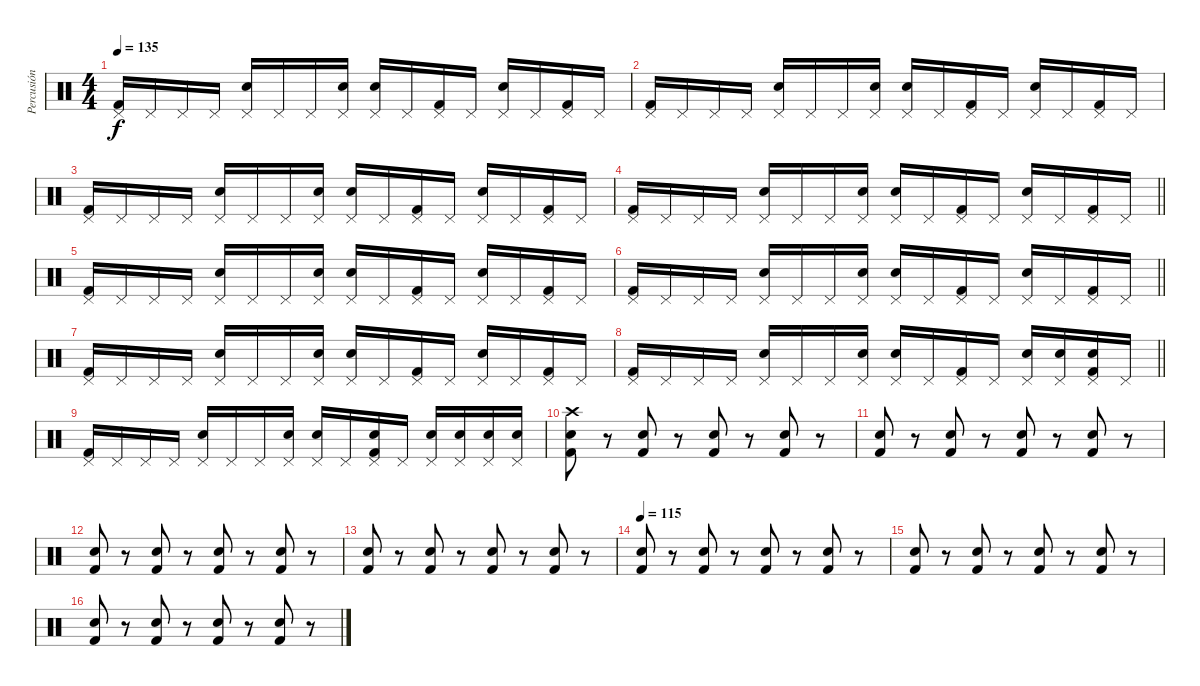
\track ("Percusión" "Percusión") {instrument percussion}
\staff {score}
\articulation defaults
\ts (4 4)
\tempo 135
\clef neutral
\ks c
("Pedal Hi-Hat (hit)" "Kick (hit) 2").16{dy f} "Pedal Hi-Hat (hit)".16 "Pedal Hi-Hat (hit)".16 "Pedal Hi-Hat (hit)".16 ("Pedal Hi-Hat (hit)" "Snare (hit) 2").16 "Pedal Hi-Hat (hit)".16 "Pedal Hi-Hat (hit)".16 ("Pedal Hi-Hat (hit)" "Snare (hit) 2").16 ("Pedal Hi-Hat (hit)" "Snare (hit) 2").16 "Pedal Hi-Hat (hit)".16 ("Pedal Hi-Hat (hit)" "Kick (hit) 2").16 "Pedal Hi-Hat (hit)".16 ("Pedal Hi-Hat (hit)" "Snare (hit) 2").16 "Pedal Hi-Hat (hit)".16 ("Pedal Hi-Hat (hit)" "Kick (hit) 2").16 "Pedal Hi-Hat (hit)".16 |
("Pedal Hi-Hat (hit)" "Kick (hit) 2").16 "Pedal Hi-Hat (hit)".16 "Pedal Hi-Hat (hit)".16 "Pedal Hi-Hat (hit)".16 ("Pedal Hi-Hat (hit)" "Snare (hit) 2").16 "Pedal Hi-Hat (hit)".16 "Pedal Hi-Hat (hit)".16 ("Pedal Hi-Hat (hit)" "Snare (hit) 2").16 ("Pedal Hi-Hat (hit)" "Snare (hit) 2").16 "Pedal Hi-Hat (hit)".16 ("Pedal Hi-Hat (hit)" "Kick (hit) 2").16 "Pedal Hi-Hat (hit)".16 ("Pedal Hi-Hat (hit)" "Snare (hit) 2").16 "Pedal Hi-Hat (hit)".16 ("Pedal Hi-Hat (hit)" "Kick (hit) 2").16 "Pedal Hi-Hat (hit)".16 |
("Pedal Hi-Hat (hit)" "Kick (hit) 2").16 "Pedal Hi-Hat (hit)".16 "Pedal Hi-Hat (hit)".16 "Pedal Hi-Hat (hit)".16 ("Pedal Hi-Hat (hit)" "Snare (hit) 2").16 "Pedal Hi-Hat (hit)".16 "Pedal Hi-Hat (hit)".16 ("Pedal Hi-Hat (hit)" "Snare (hit) 2").16 ("Pedal Hi-Hat (hit)" "Snare (hit) 2").16 "Pedal Hi-Hat (hit)".16 ("Pedal Hi-Hat (hit)" "Kick (hit) 2").16 "Pedal Hi-Hat (hit)".16 ("Pedal Hi-Hat (hit)" "Snare (hit) 2").16 "Pedal Hi-Hat (hit)".16 ("Pedal Hi-Hat (hit)" "Kick (hit) 2").16 "Pedal Hi-Hat (hit)".16 |
\barLineRight lightlight
("Pedal Hi-Hat (hit)" "Kick (hit) 2").16 "Pedal Hi-Hat (hit)".16 "Pedal Hi-Hat (hit)".16 "Pedal Hi-Hat (hit)".16 ("Pedal Hi-Hat (hit)" "Snare (hit) 2").16 "Pedal Hi-Hat (hit)".16 "Pedal Hi-Hat (hit)".16 ("Pedal Hi-Hat (hit)" "Snare (hit) 2").16 ("Pedal Hi-Hat (hit)" "Snare (hit) 2").16 "Pedal Hi-Hat (hit)".16 ("Pedal Hi-Hat (hit)" "Kick (hit) 2").16 "Pedal Hi-Hat (hit)".16 ("Pedal Hi-Hat (hit)" "Snare (hit) 2").16 "Pedal Hi-Hat (hit)".16 ("Pedal Hi-Hat (hit)" "Kick (hit) 2").16 "Pedal Hi-Hat (hit)".16 |
("Pedal Hi-Hat (hit)" "Kick (hit) 2").16 "Pedal Hi-Hat (hit)".16 "Pedal Hi-Hat (hit)".16 "Pedal Hi-Hat (hit)".16 ("Pedal Hi-Hat (hit)" "Snare (hit) 2").16 "Pedal Hi-Hat (hit)".16 "Pedal Hi-Hat (hit)".16 ("Pedal Hi-Hat (hit)" "Snare (hit) 2").16 ("Pedal Hi-Hat (hit)" "Snare (hit) 2").16 "Pedal Hi-Hat (hit)".16 ("Pedal Hi-Hat (hit)" "Kick (hit) 2").16 "Pedal Hi-Hat (hit)".16 ("Pedal Hi-Hat (hit)" "Snare (hit) 2").16 "Pedal Hi-Hat (hit)".16 ("Pedal Hi-Hat (hit)" "Kick (hit) 2").16 "Pedal Hi-Hat (hit)".16 |
\barLineRight lightlight
("Pedal Hi-Hat (hit)" "Kick (hit) 2").16 "Pedal Hi-Hat (hit)".16 "Pedal Hi-Hat (hit)".16 "Pedal Hi-Hat (hit)".16 ("Pedal Hi-Hat (hit)" "Snare (hit) 2").16 "Pedal Hi-Hat (hit)".16 "Pedal Hi-Hat (hit)".16 ("Pedal Hi-Hat (hit)" "Snare (hit) 2").16 ("Pedal Hi-Hat (hit)" "Snare (hit) 2").16 "Pedal Hi-Hat (hit)".16 ("Pedal Hi-Hat (hit)" "Kick (hit) 2").16 "Pedal Hi-Hat (hit)".16 ("Pedal Hi-Hat (hit)" "Snare (hit) 2").16 "Pedal Hi-Hat (hit)".16 ("Pedal Hi-Hat (hit)" "Kick (hit) 2").16 "Pedal Hi-Hat (hit)".16 |
("Pedal Hi-Hat (hit)" "Kick (hit) 2").16 "Pedal Hi-Hat (hit)".16 "Pedal Hi-Hat (hit)".16 "Pedal Hi-Hat (hit)".16 ("Pedal Hi-Hat (hit)" "Snare (hit) 2").16 "Pedal Hi-Hat (hit)".16 "Pedal Hi-Hat (hit)".16 ("Pedal Hi-Hat (hit)" "Snare (hit) 2").16 ("Pedal Hi-Hat (hit)" "Snare (hit) 2").16 "Pedal Hi-Hat (hit)".16 ("Pedal Hi-Hat (hit)" "Kick (hit) 2").16 "Pedal Hi-Hat (hit)".16 ("Pedal Hi-Hat (hit)" "Snare (hit) 2").16 "Pedal Hi-Hat (hit)".16 ("Pedal Hi-Hat (hit)" "Kick (hit) 2").16 "Pedal Hi-Hat (hit)".16 |
\barLineRight lightlight
("Pedal Hi-Hat (hit)" "Kick (hit) 2").16 "Pedal Hi-Hat (hit)".16 "Pedal Hi-Hat (hit)".16 "Pedal Hi-Hat (hit)".16 ("Pedal Hi-Hat (hit)" "Snare (hit) 2").16 "Pedal Hi-Hat (hit)".16 "Pedal Hi-Hat (hit)".16 ("Pedal Hi-Hat (hit)" "Snare (hit) 2").16 ("Pedal Hi-Hat (hit)" "Snare (hit) 2").16 "Pedal Hi-Hat (hit)".16 ("Pedal Hi-Hat (hit)" "Kick (hit) 2").16 "Pedal Hi-Hat (hit)".16 ("Pedal Hi-Hat (hit)" "Snare (hit) 2").16 ("Pedal Hi-Hat (hit)" "Snare (hit) 2").16 ("Pedal Hi-Hat (hit)" "Snare (hit) 2" "Kick (hit) 2").16 "Pedal Hi-Hat (hit)".16 |
("Pedal Hi-Hat (hit)" "Kick (hit) 2").16 "Pedal Hi-Hat (hit)".16 "Pedal Hi-Hat (hit)".16 "Pedal Hi-Hat (hit)".16 ("Pedal Hi-Hat (hit)" "Snare (hit) 2").16 "Pedal Hi-Hat (hit)".16 "Pedal Hi-Hat (hit)".16 ("Pedal Hi-Hat (hit)" "Snare (hit) 2").16 ("Pedal Hi-Hat (hit)" "Snare (hit) 2").16 "Pedal Hi-Hat (hit)".16 ("Pedal Hi-Hat (hit)" "Snare (hit) 2" "Kick (hit) 2").16 "Pedal Hi-Hat (hit)".16 ("Pedal Hi-Hat (hit)" "Snare (hit) 2").16 ("Pedal Hi-Hat (hit)" "Snare (hit) 2").16 ("Pedal Hi-Hat (hit)" "Snare (hit) 2").16 ("Pedal Hi-Hat (hit)" "Snare (hit) 2").16 |
("Crash high (hit)" "Snare (hit) 2" "Kick (hit) 2").8 r.8 ("Snare (hit) 2" "Kick (hit) 2").8 r.8 ("Snare (hit) 2" "Kick (hit) 2").8 r.8 ("Snare (hit) 2" "Kick (hit) 2").8 r.8 |
("Snare (hit) 2" "Kick (hit) 2").8 r.8 ("Snare (hit) 2" "Kick (hit) 2").8 r.8 ("Snare (hit) 2" "Kick (hit) 2").8 r.8 ("Snare (hit) 2" "Kick (hit) 2").8 r.8 |
("Snare (hit) 2" "Kick (hit) 2").8 r.8 ("Snare (hit) 2" "Kick (hit) 2").8 r.8 ("Snare (hit) 2" "Kick (hit) 2").8 r.8 ("Snare (hit) 2" "Kick (hit) 2").8 r.8 |
("Snare (hit) 2" "Kick (hit) 2").8 r.8 ("Snare (hit) 2" "Kick (hit) 2").8 r.8 ("Snare (hit) 2" "Kick (hit) 2").8 r.8 ("Snare (hit) 2" "Kick (hit) 2").8 r.8 |
\tempo 115
("Snare (hit) 2" "Kick (hit) 2").8 r.8 ("Snare (hit) 2" "Kick (hit) 2").8 r.8 ("Snare (hit) 2" "Kick (hit) 2").8 r.8 ("Snare (hit) 2" "Kick (hit) 2").8 r.8 |
("Snare (hit) 2" "Kick (hit) 2").8 r.8 ("Snare (hit) 2" "Kick (hit) 2").8 r.8 ("Snare (hit) 2" "Kick (hit) 2").8 r.8 ("Snare (hit) 2" "Kick (hit) 2").8 r.8 |
("Snare (hit) 2" "Kick (hit) 2").8 r.8 ("Snare (hit) 2" "Kick (hit) 2").8 r.8 ("Snare (hit) 2" "Kick (hit) 2").8 r.8 ("Snare (hit) 2" "Kick (hit) 2").8 r.8
